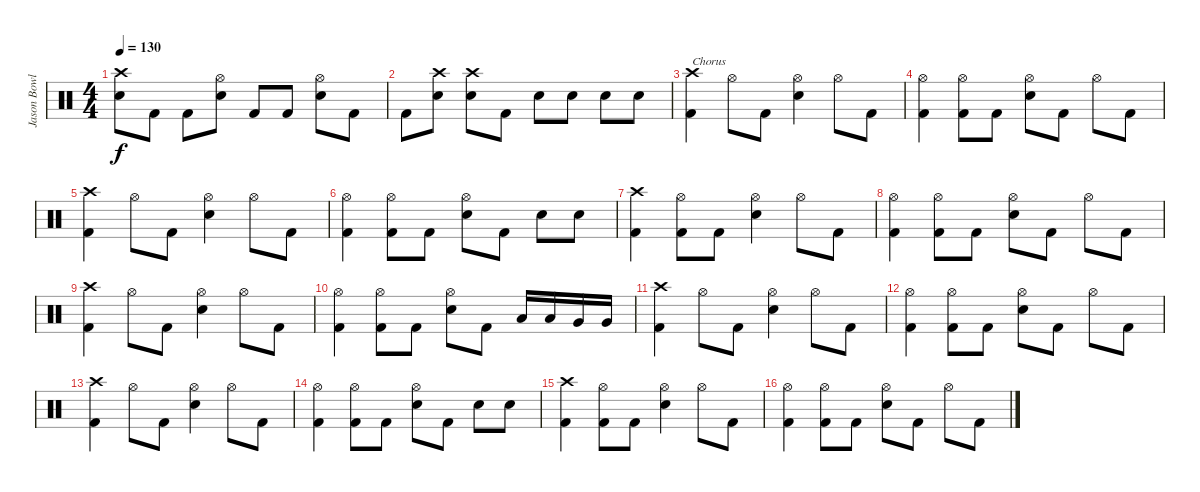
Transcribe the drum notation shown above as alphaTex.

\track ("Jason Bowld" "Jason Bowl") {instrument percussion}
\staff {score}
\articulation defaults
\ts (4 4)
\tempo 130
\clef neutral
\ks c
("Crash high (hit)" "Snare (hit) 2").8{dy f} "Kick (hit) 2".8 "Kick (hit) 2".8 ("Hi-Hat (open)" "Snare (hit) 2").8 "Kick (hit) 2".8 "Kick (hit) 2".8 ("Hi-Hat (open)" "Snare (hit) 2").8 "Kick (hit) 2".8 |
"Kick (hit) 2".8 ("Crash high (hit)" "Snare (hit) 2").8 ("Crash high (hit)" "Snare (hit) 2").8 "Kick (hit) 2".8 "Snare (hit) 2".8 "Snare (hit) 2".8 "Snare (hit) 2".8 "Snare (hit) 2".8 |
("Crash high (hit)" "Kick (hit) 2").4{txt "Chorus"} "Hi-Hat (open)".8 "Kick (hit) 2".8 ("Hi-Hat (open)" "Snare (hit) 2").4 "Hi-Hat (open)".8 "Kick (hit) 2".8 |
("Hi-Hat (open)" "Kick (hit) 2").4 ("Hi-Hat (open)" "Kick (hit) 2").8 "Kick (hit) 2".8 ("Hi-Hat (open)" "Snare (hit) 2").8 "Kick (hit) 2".8 "Hi-Hat (open)".8 "Kick (hit) 2".8 |
("Crash high (hit)" "Kick (hit) 2").4 "Hi-Hat (open)".8 "Kick (hit) 2".8 ("Hi-Hat (open)" "Snare (hit) 2").4 "Hi-Hat (open)".8 "Kick (hit) 2".8 |
("Hi-Hat (open)" "Kick (hit) 2").4 ("Hi-Hat (open)" "Kick (hit) 2").8 "Kick (hit) 2".8 ("Hi-Hat (open)" "Snare (hit) 2").8 "Kick (hit) 2".8 "Snare (hit) 2".8 "Snare (hit) 2".8 |
("Crash high (hit)" "Kick (hit) 2").4 ("Hi-Hat (open)" "Kick (hit) 2").8 "Kick (hit) 2".8 ("Hi-Hat (open)" "Snare (hit) 2").4 "Hi-Hat (open)".8 "Kick (hit) 2".8 |
("Hi-Hat (open)" "Kick (hit) 2").4 ("Hi-Hat (open)" "Kick (hit) 2").8 "Kick (hit) 2".8 ("Hi-Hat (open)" "Snare (hit) 2").8 "Kick (hit) 2".8 "Hi-Hat (open)".8 "Kick (hit) 2".8 |
("Crash high (hit)" "Kick (hit) 2").4 "Hi-Hat (open)".8 "Kick (hit) 2".8 ("Hi-Hat (open)" "Snare (hit) 2").4 "Hi-Hat (open)".8 "Kick (hit) 2".8 |
("Hi-Hat (open)" "Kick (hit) 2").4 ("Hi-Hat (open)" "Kick (hit) 2").8 "Kick (hit) 2".8 ("Hi-Hat (open)" "Snare (hit) 2").8 "Kick (hit) 2".8 "Low Tom (hit)".16 "Low Tom (hit)".16 "Very Low Tom (hit)".16 "Very Low Tom (hit)".16 |
("Crash high (hit)" "Kick (hit) 2").4 "Hi-Hat (open)".8 "Kick (hit) 2".8 ("Hi-Hat (open)" "Snare (hit) 2").4 "Hi-Hat (open)".8 "Kick (hit) 2".8 |
("Hi-Hat (open)" "Kick (hit) 2").4 ("Hi-Hat (open)" "Kick (hit) 2").8 "Kick (hit) 2".8 ("Hi-Hat (open)" "Snare (hit) 2").8 "Kick (hit) 2".8 "Hi-Hat (open)".8 "Kick (hit) 2".8 |
("Crash high (hit)" "Kick (hit) 2").4 "Hi-Hat (open)".8 "Kick (hit) 2".8 ("Hi-Hat (open)" "Snare (hit) 2").4 "Hi-Hat (open)".8 "Kick (hit) 2".8 |
("Hi-Hat (open)" "Kick (hit) 2").4 ("Hi-Hat (open)" "Kick (hit) 2").8 "Kick (hit) 2".8 ("Hi-Hat (open)" "Snare (hit) 2").8 "Kick (hit) 2".8 "Snare (hit) 2".8 "Snare (hit) 2".8 |
("Crash high (hit)" "Kick (hit) 2").4 ("Hi-Hat (open)" "Kick (hit) 2").8 "Kick (hit) 2".8 ("Hi-Hat (open)" "Snare (hit) 2").4 "Hi-Hat (open)".8 "Kick (hit) 2".8 |
("Hi-Hat (open)" "Kick (hit) 2").4 ("Hi-Hat (open)" "Kick (hit) 2").8 "Kick (hit) 2".8 ("Hi-Hat (open)" "Snare (hit) 2").8 "Kick (hit) 2".8 "Hi-Hat (open)".8 "Kick (hit) 2".8
